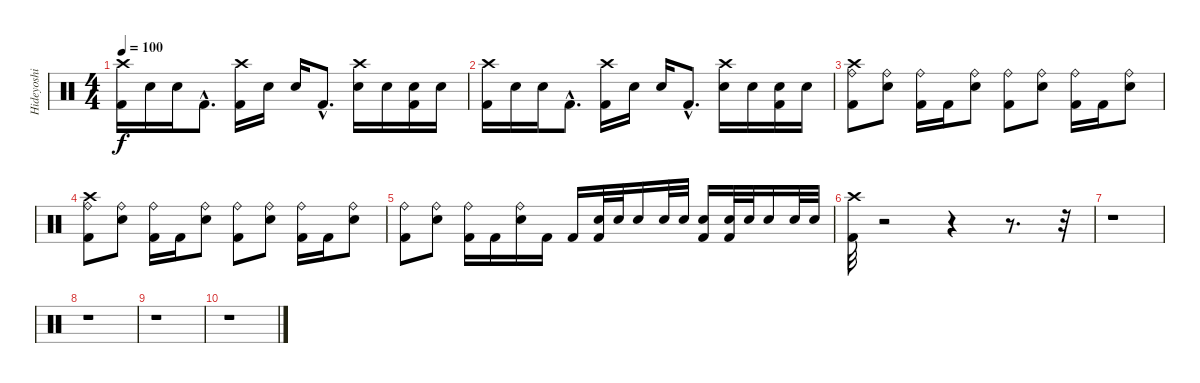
\track ("Hideyoshi" "Hideyoshi") {instrument percussion}
\staff {score}
\articulation defaults
\ts (4 4)
\tempo 100
\clef neutral
\ks c
("Crash high (hit)" "Kick (hit) 2").16{dy f} "Snare (hit) 2".16 "Snare (hit) 2".16 "Kick (hit) 2"{hac}.8{d} ("Crash high (hit)" "Kick (hit) 2").16 "Snare (hit) 2".16 "Snare (hit) 2".16 "Kick (hit) 2"{hac}.8{d} ("Crash high (hit)" "Snare (hit) 2").16 "Snare (hit) 2".16 ("Snare (hit) 2" "Kick (hit) 2").16 "Snare (hit) 2".16 |
("Kick (hit) 2" "Crash high (hit)").16 "Snare (hit) 2".16 "Snare (hit) 2".16 "Kick (hit) 2"{hac}.8{d} ("Kick (hit) 2" "Crash high (hit)").16 "Snare (hit) 2".16 "Snare (hit) 2".16 "Kick (hit) 2"{hac}.8{d} ("Snare (hit) 2" "Crash high (hit)").16 "Snare (hit) 2".16 ("Snare (hit) 2" "Kick (hit) 2").16 "Snare (hit) 2".16 |
("Crash high (hit)" "Kick (hit) 2" "Ride (bell)").8 ("Snare (hit) 2" "Ride (bell)").8 ("Kick (hit) 2" "Ride (bell)").16 "Kick (hit) 2".16 ("Snare (hit) 2" "Ride (bell)").8 ("Kick (hit) 2" "Ride (bell)").8 ("Snare (hit) 2" "Ride (bell)").8 ("Kick (hit) 2" "Ride (bell)").16 "Kick (hit) 2".16 ("Snare (hit) 2" "Ride (bell)").8 |
("Crash high (hit)" "Kick (hit) 2" "Ride (bell)").8 ("Snare (hit) 2" "Ride (bell)").8 ("Kick (hit) 2" "Ride (bell)").16 "Kick (hit) 2".16 ("Snare (hit) 2" "Ride (bell)").8 ("Kick (hit) 2" "Ride (bell)").8 ("Snare (hit) 2" "Ride (bell)").8 ("Kick (hit) 2" "Ride (bell)").16 "Kick (hit) 2".16 ("Snare (hit) 2" "Ride (bell)").8 |
("Ride (bell)" "Kick (hit) 2").8 ("Snare (hit) 2" "Ride (bell)").8 ("Kick (hit) 2" "Ride (bell)").16 "Kick (hit) 2".16 ("Snare (hit) 2" "Ride (bell)").16 "Kick (hit) 2".16 "Kick (hit) 2".16 ("Snare (hit) 2" "Kick (hit) 2").32 "Snare (hit) 2".32 "Snare (hit) 2".16 "Snare (hit) 2".32 "Snare (hit) 2".32 ("Snare (hit) 2" "Kick (hit) 2").16 ("Snare (hit) 2" "Kick (hit) 2").32 "Snare (hit) 2".32 "Snare (hit) 2".16 "Snare (hit) 2".32 "Snare (hit) 2".32 |
("Kick (hit) 2" "Crash high (hit)").32 r.2 r.4 r.8{d} r.32 |
r.1 |
r.1 |
r.1 |
r.1
